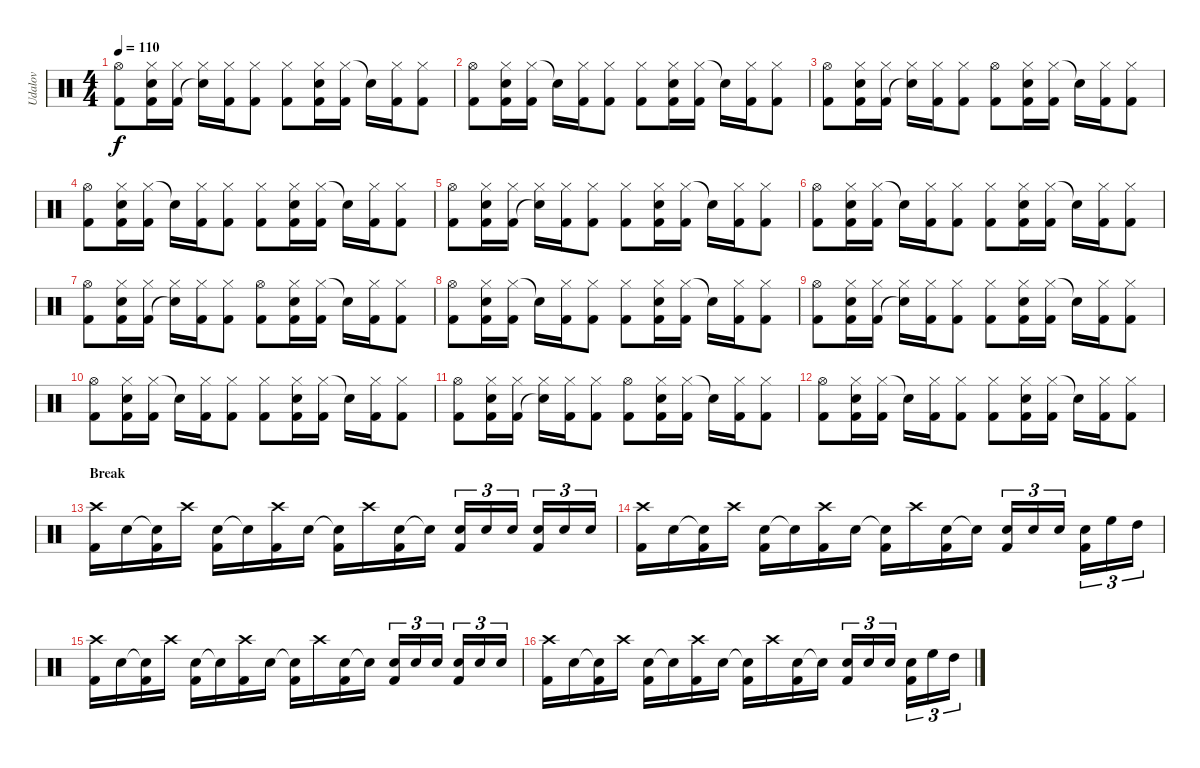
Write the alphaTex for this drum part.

\track ("Udalov" "Udalov") {instrument percussion}
\staff {score}
\articulation defaults
\ts (4 4)
\tempo 110
\clef neutral
\ks c
("Hi-Hat (open)" "Kick (hit) 2").8{dy f} ("Hi-Hat (closed)" "Snare (hit) 2" "Kick (hit) 2").16 ("Hi-Hat (closed)" "Kick (hit) 2").16 ("Hi-Hat (closed)" "Snare (hit)"{t}).16 ("Hi-Hat (closed)" "Kick (hit) 2").16 ("Hi-Hat (closed)" "Kick (hit) 2").8 ("Hi-Hat (closed)" "Kick (hit) 2").8 ("Hi-Hat (closed)" "Snare (hit) 2" "Kick (hit) 2").16 ("Hi-Hat (closed)" "Kick (hit) 2").16 "Snare (hit)"{t}.16 ("Hi-Hat (closed)" "Kick (hit) 2").16 ("Hi-Hat (closed)" "Kick (hit) 2").8 |
("Hi-Hat (open)" "Kick (hit) 2").8 ("Hi-Hat (closed)" "Snare (hit) 2" "Kick (hit) 2").16 ("Hi-Hat (closed)" "Kick (hit) 2").16 "Snare (hit)"{t}.16 ("Hi-Hat (closed)" "Kick (hit) 2").16 ("Hi-Hat (closed)" "Kick (hit) 2").8 ("Hi-Hat (closed)" "Kick (hit) 2").8 ("Hi-Hat (closed)" "Snare (hit) 2" "Kick (hit) 2").16 ("Hi-Hat (closed)" "Kick (hit) 2").16 "Snare (hit)"{t}.16 ("Hi-Hat (closed)" "Kick (hit) 2").16 ("Hi-Hat (closed)" "Kick (hit) 2").8 |
("Hi-Hat (open)" "Kick (hit) 2").8 ("Hi-Hat (closed)" "Snare (hit) 2" "Kick (hit) 2").16 ("Hi-Hat (closed)" "Kick (hit) 2").16 ("Hi-Hat (closed)" "Snare (hit)"{t}).16 ("Hi-Hat (closed)" "Kick (hit) 2").16 ("Hi-Hat (closed)" "Kick (hit) 2").8 ("Hi-Hat (open)" "Kick (hit) 2").8 ("Hi-Hat (closed)" "Snare (hit) 2" "Kick (hit) 2").16 ("Hi-Hat (closed)" "Kick (hit) 2").16 "Snare (hit)"{t}.16 ("Hi-Hat (closed)" "Kick (hit) 2").16 ("Hi-Hat (closed)" "Kick (hit) 2").8 |
("Hi-Hat (open)" "Kick (hit) 2").8 ("Hi-Hat (closed)" "Snare (hit) 2" "Kick (hit) 2").16 ("Hi-Hat (closed)" "Kick (hit) 2").16 "Snare (hit)"{t}.16 ("Hi-Hat (closed)" "Kick (hit) 2").16 ("Hi-Hat (closed)" "Kick (hit) 2").8 ("Hi-Hat (closed)" "Kick (hit) 2").8 ("Hi-Hat (closed)" "Snare (hit) 2" "Kick (hit) 2").16 ("Hi-Hat (closed)" "Kick (hit) 2").16 "Snare (hit)"{t}.16 ("Hi-Hat (closed)" "Kick (hit) 2").16 ("Hi-Hat (closed)" "Kick (hit) 2").8 |
("Hi-Hat (open)" "Kick (hit) 2").8 ("Hi-Hat (closed)" "Snare (hit) 2" "Kick (hit) 2").16 ("Hi-Hat (closed)" "Kick (hit) 2").16 ("Hi-Hat (closed)" "Snare (hit)"{t}).16 ("Hi-Hat (closed)" "Kick (hit) 2").16 ("Hi-Hat (closed)" "Kick (hit) 2").8 ("Hi-Hat (closed)" "Kick (hit) 2").8 ("Hi-Hat (closed)" "Snare (hit) 2" "Kick (hit) 2").16 ("Hi-Hat (closed)" "Kick (hit) 2").16 "Snare (hit)"{t}.16 ("Hi-Hat (closed)" "Kick (hit) 2").16 ("Hi-Hat (closed)" "Kick (hit) 2").8 |
("Hi-Hat (open)" "Kick (hit) 2").8 ("Hi-Hat (closed)" "Snare (hit) 2" "Kick (hit) 2").16 ("Hi-Hat (closed)" "Kick (hit) 2").16 "Snare (hit)"{t}.16 ("Hi-Hat (closed)" "Kick (hit) 2").16 ("Hi-Hat (closed)" "Kick (hit) 2").8 ("Hi-Hat (closed)" "Kick (hit) 2").8 ("Hi-Hat (closed)" "Snare (hit) 2" "Kick (hit) 2").16 ("Hi-Hat (closed)" "Kick (hit) 2").16 "Snare (hit)"{t}.16 ("Hi-Hat (closed)" "Kick (hit) 2").16 ("Hi-Hat (closed)" "Kick (hit) 2").8 |
("Hi-Hat (open)" "Kick (hit) 2").8 ("Hi-Hat (closed)" "Snare (hit) 2" "Kick (hit) 2").16 ("Hi-Hat (closed)" "Kick (hit) 2").16 ("Hi-Hat (closed)" "Snare (hit)"{t}).16 ("Hi-Hat (closed)" "Kick (hit) 2").16 ("Hi-Hat (closed)" "Kick (hit) 2").8 ("Hi-Hat (open)" "Kick (hit) 2").8 ("Hi-Hat (closed)" "Snare (hit) 2" "Kick (hit) 2").16 ("Hi-Hat (closed)" "Kick (hit) 2").16 "Snare (hit)"{t}.16 ("Hi-Hat (closed)" "Kick (hit) 2").16 ("Hi-Hat (closed)" "Kick (hit) 2").8 |
("Hi-Hat (open)" "Kick (hit) 2").8 ("Hi-Hat (closed)" "Snare (hit) 2" "Kick (hit) 2").16 ("Hi-Hat (closed)" "Kick (hit) 2").16 "Snare (hit)"{t}.16 ("Hi-Hat (closed)" "Kick (hit) 2").16 ("Hi-Hat (closed)" "Kick (hit) 2").8 ("Hi-Hat (closed)" "Kick (hit) 2").8 ("Hi-Hat (closed)" "Snare (hit) 2" "Kick (hit) 2").16 ("Hi-Hat (closed)" "Kick (hit) 2").16 "Snare (hit)"{t}.16 ("Hi-Hat (closed)" "Kick (hit) 2").16 ("Hi-Hat (closed)" "Kick (hit) 2").8 |
("Hi-Hat (open)" "Kick (hit) 2").8 ("Hi-Hat (closed)" "Snare (hit) 2" "Kick (hit) 2").16 ("Hi-Hat (closed)" "Kick (hit) 2").16 ("Hi-Hat (closed)" "Snare (hit)"{t}).16 ("Hi-Hat (closed)" "Kick (hit) 2").16 ("Hi-Hat (closed)" "Kick (hit) 2").8 ("Hi-Hat (closed)" "Kick (hit) 2").8 ("Hi-Hat (closed)" "Snare (hit) 2" "Kick (hit) 2").16 ("Hi-Hat (closed)" "Kick (hit) 2").16 "Snare (hit)"{t}.16 ("Hi-Hat (closed)" "Kick (hit) 2").16 ("Hi-Hat (closed)" "Kick (hit) 2").8 |
("Hi-Hat (open)" "Kick (hit) 2").8 ("Hi-Hat (closed)" "Snare (hit) 2" "Kick (hit) 2").16 ("Hi-Hat (closed)" "Kick (hit) 2").16 "Snare (hit)"{t}.16 ("Hi-Hat (closed)" "Kick (hit) 2").16 ("Hi-Hat (closed)" "Kick (hit) 2").8 ("Hi-Hat (closed)" "Kick (hit) 2").8 ("Hi-Hat (closed)" "Snare (hit) 2" "Kick (hit) 2").16 ("Hi-Hat (closed)" "Kick (hit) 2").16 "Snare (hit)"{t}.16 ("Hi-Hat (closed)" "Kick (hit) 2").16 ("Hi-Hat (closed)" "Kick (hit) 2").8 |
("Hi-Hat (open)" "Kick (hit) 2").8 ("Hi-Hat (closed)" "Snare (hit) 2" "Kick (hit) 2").16 ("Hi-Hat (closed)" "Kick (hit) 2").16 ("Hi-Hat (closed)" "Snare (hit)"{t}).16 ("Hi-Hat (closed)" "Kick (hit) 2").16 ("Hi-Hat (closed)" "Kick (hit) 2").8 ("Hi-Hat (open)" "Kick (hit) 2").8 ("Hi-Hat (closed)" "Snare (hit) 2" "Kick (hit) 2").16 ("Hi-Hat (closed)" "Kick (hit) 2").16 "Snare (hit)"{t}.16 ("Hi-Hat (closed)" "Kick (hit) 2").16 ("Hi-Hat (closed)" "Kick (hit) 2").8 |
("Hi-Hat (open)" "Kick (hit) 2").8 ("Hi-Hat (closed)" "Snare (hit) 2" "Kick (hit) 2").16 ("Hi-Hat (closed)" "Kick (hit) 2").16 "Snare (hit)"{t}.16 ("Hi-Hat (closed)" "Kick (hit) 2").16 ("Hi-Hat (closed)" "Kick (hit) 2").8 ("Hi-Hat (closed)" "Kick (hit) 2").8 ("Hi-Hat (closed)" "Snare (hit) 2" "Kick (hit) 2").16 ("Hi-Hat (closed)" "Kick (hit) 2").16 "Snare (hit)"{t}.16 ("Hi-Hat (closed)" "Kick (hit) 2").16 ("Hi-Hat (closed)" "Kick (hit) 2").8 |
\section ("" "Break")
("Crash high (hit)" "Kick (hit) 2").16 "Snare (hit) 2".16 ("Electric Snare (hit)"{t} "Kick (hit) 2").16 "Crash high (hit)".16 ("Snare (hit) 2" "Kick (hit) 2").16 "Electric Snare (hit)"{t}.16 ("Crash high (hit)" "Kick (hit) 2").16 "Snare (hit) 2".16 ("Electric Snare (hit)"{t} "Kick (hit) 2").16 "Crash high (hit)".16 ("Snare (hit) 2" "Kick (hit) 2").16 "Snare (hit)"{t}.16 ("Snare (hit) 2" "Kick (hit) 2").16{tu (3 2)} "Snare (hit) 2".16{tu (3 2)} "Snare (hit) 2".16{tu (3 2)} ("Snare (hit) 2" "Kick (hit) 2").16{tu (3 2)} "Snare (hit) 2".16{tu (3 2)} "Snare (hit) 2".16{tu (3 2)} |
("Crash high (hit)" "Kick (hit) 2").16 "Snare (hit) 2".16 ("Electric Snare (hit)"{t} "Kick (hit) 2").16 "Crash high (hit)".16 ("Snare (hit) 2" "Kick (hit) 2").16 "Electric Snare (hit)"{t}.16 ("Crash high (hit)" "Kick (hit) 2").16 "Snare (hit) 2".16 ("Electric Snare (hit)"{t} "Kick (hit) 2").16 "Crash high (hit)".16 ("Snare (hit) 2" "Kick (hit) 2").16 "Snare (hit)"{t}.16 ("Snare (hit) 2" "Kick (hit) 2").16{tu (3 2)} "Snare (hit) 2".16{tu (3 2)} "Snare (hit) 2".16{tu (3 2)} ("Snare (hit) 2" "Kick (hit) 2").16{tu (3 2)} "High Floor Tom (hit)".16{tu (3 2)} "High Tom (hit)".16{tu (3 2)} |
("Crash high (hit)" "Kick (hit) 2").16 "Snare (hit) 2".16 ("Electric Snare (hit)"{t} "Kick (hit) 2").16 "Crash high (hit)".16 ("Snare (hit) 2" "Kick (hit) 2").16 "Electric Snare (hit)"{t}.16 ("Crash high (hit)" "Kick (hit) 2").16 "Snare (hit) 2".16 ("Electric Snare (hit)"{t} "Kick (hit) 2").16 "Crash high (hit)".16 ("Snare (hit) 2" "Kick (hit) 2").16 "Snare (hit)"{t}.16 ("Snare (hit) 2" "Kick (hit) 2").16{tu (3 2)} "Snare (hit) 2".16{tu (3 2)} "Snare (hit) 2".16{tu (3 2)} ("Snare (hit) 2" "Kick (hit) 2").16{tu (3 2)} "Snare (hit) 2".16{tu (3 2)} "Snare (hit) 2".16{tu (3 2)} |
("Crash high (hit)" "Kick (hit) 2").16 "Snare (hit) 2".16 ("Electric Snare (hit)"{t} "Kick (hit) 2").16 "Crash high (hit)".16 ("Snare (hit) 2" "Kick (hit) 2").16 "Electric Snare (hit)"{t}.16 ("Crash high (hit)" "Kick (hit) 2").16 "Snare (hit) 2".16 ("Electric Snare (hit)"{t} "Kick (hit) 2").16 "Crash high (hit)".16 ("Snare (hit) 2" "Kick (hit) 2").16 "Snare (hit)"{t}.16 ("Snare (hit) 2" "Kick (hit) 2").16{tu (3 2)} "Snare (hit) 2".16{tu (3 2)} "Snare (hit) 2".16{tu (3 2)} ("Snare (hit) 2" "Kick (hit) 2").16{tu (3 2)} "High Floor Tom (hit)".16{tu (3 2)} "High Tom (hit)".16{tu (3 2)}
